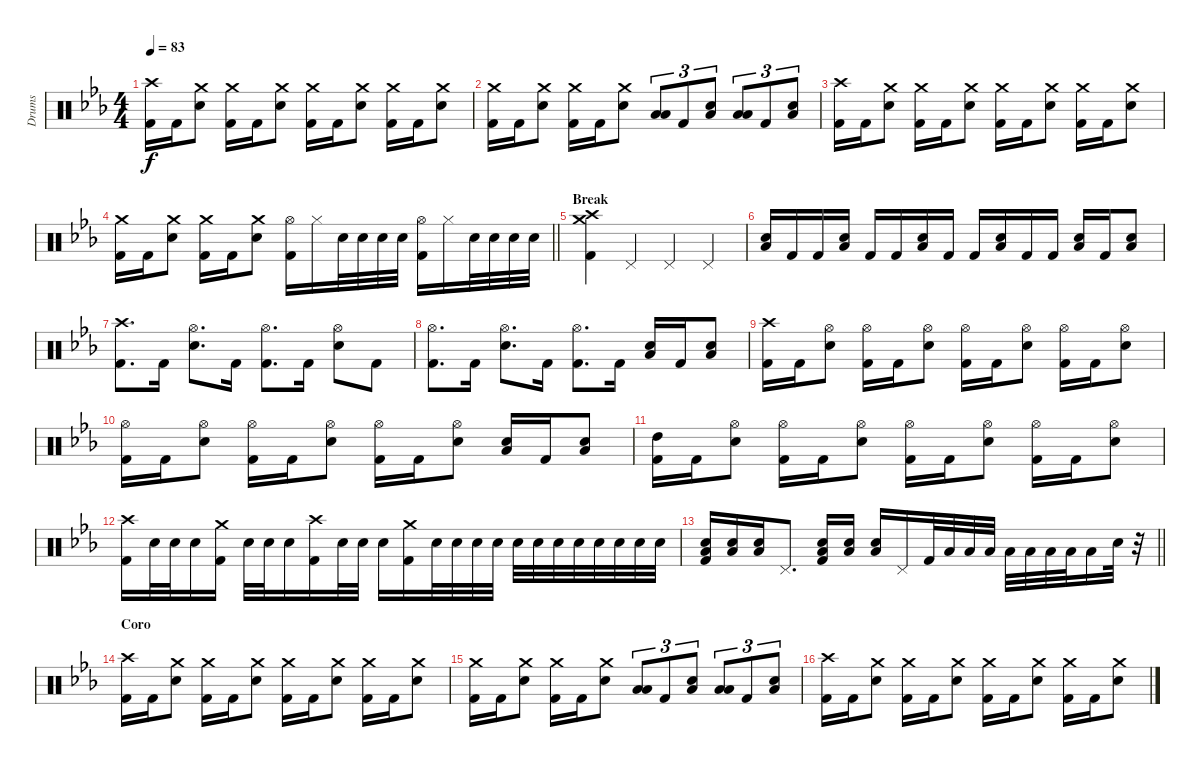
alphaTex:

\track ("Drums" "Drums") {instrument percussion}
\staff {score}
\articulation defaults
\ts (4 4)
\tempo 83
\clef neutral
\ks eb
("Crash high (hit)" "Kick (hit) 2").16{dy f} "Kick (hit) 2".16 ("Crash medium (hit)" "Snare (hit) 2").8 ("Crash medium (hit)" "Kick (hit) 2").16 "Kick (hit) 2".16 ("Crash medium (hit)" "Snare (hit) 2").8 ("Crash medium (hit)" "Kick (hit) 2").16 "Kick (hit) 2".16 ("Crash medium (hit)" "Snare (hit) 2").8 ("Crash medium (hit)" "Kick (hit) 2").16 "Kick (hit) 2".16 ("Crash medium (hit)" "Snare (hit) 2").8 |
("Crash medium (hit)" "Kick (hit) 2").16 "Kick (hit) 2".16 ("Crash medium (hit)" "Snare (hit) 2").8 ("Crash medium (hit)" "Kick (hit) 2").16 "Kick (hit) 2".16 ("Crash medium (hit)" "Snare (hit) 2").8 ("Low Tom (hit)" "Low Floor Tom (hit)").8{tu (3 2)} "Kick (hit) 2".8{tu (3 2)} ("Low Floor Tom (hit)" "Snare (hit) 2").8{tu (3 2)} ("Low Tom (hit)" "Low Floor Tom (hit)").8{tu (3 2)} "Kick (hit) 2".8{tu (3 2)} ("Low Floor Tom (hit)" "Snare (hit) 2").8{tu (3 2)} |
("Crash high (hit)" "Kick (hit) 2").16 "Kick (hit) 2".16 ("Crash medium (hit)" "Snare (hit) 2").8 ("Crash medium (hit)" "Kick (hit) 2").16 "Kick (hit) 2".16 ("Crash medium (hit)" "Snare (hit) 2").8 ("Crash medium (hit)" "Kick (hit) 2").16 "Kick (hit) 2".16 ("Crash medium (hit)" "Snare (hit) 2").8 ("Crash medium (hit)" "Kick (hit) 2").16 "Kick (hit) 2".16 ("Crash medium (hit)" "Snare (hit) 2").8 |
\barLineRight lightlight
("Crash medium (hit)" "Kick (hit) 2").16 "Kick (hit) 2".16 ("Crash medium (hit)" "Snare (hit) 2").8 ("Crash medium (hit)" "Kick (hit) 2").16 "Kick (hit) 2".16 ("Crash medium (hit)" "Snare (hit) 2").8 ("Hi-Hat (open)" "Kick (hit) 2").16 "Hi-Hat (closed)".16 "Snare (hit) 2".32 "Snare (hit) 2".32 "Snare (hit) 2".32 "Snare (hit) 2".32 ("Hi-Hat (open)" "Kick (hit) 2").16 "Hi-Hat (closed)".16 "Snare (hit) 2".32 "Snare (hit) 2".32 "Snare (hit) 2".32 "Snare (hit) 2".32 |
\section ("" "Break")
("Crash medium (hit)" "Crash high (hit)" "Kick (hit) 2").4 "Pedal Hi-Hat (hit)".4 "Pedal Hi-Hat (hit)".4 "Pedal Hi-Hat (hit)".4 |
("Low Floor Tom (hit)" "Snare (hit) 2").16 "Kick (hit) 2".16 "Kick (hit) 2".16 ("Low Floor Tom (hit)" "Snare (hit) 2").16 "Kick (hit) 2".16 "Kick (hit) 2".16 ("Low Floor Tom (hit)" "Snare (hit) 2").16 "Kick (hit) 2".16 "Kick (hit) 2".16 ("Low Floor Tom (hit)" "Snare (hit) 2").16 "Kick (hit) 2".16 "Kick (hit) 2".16 ("Low Floor Tom (hit)" "Snare (hit) 2").16 "Kick (hit) 2".16 ("Low Floor Tom (hit)" "Snare (hit) 2").8 |
("Crash high (hit)" "Kick (hit) 2").8{d} "Kick (hit) 2".16 ("Hi-Hat (open)" "Snare (hit) 2").8{d} "Kick (hit) 2".16 ("Hi-Hat (open)" "Kick (hit) 2").8{d} "Kick (hit) 2".16 ("Hi-Hat (open)" "Snare (hit) 2").8 "Kick (hit) 2".8 |
("Hi-Hat (open)" "Kick (hit) 2").8{d} "Kick (hit) 2".16 ("Hi-Hat (open)" "Snare (hit) 2").8{d} "Kick (hit) 2".16 ("Hi-Hat (open)" "Kick (hit) 2").8{d} "Kick (hit) 2".16 ("Low Floor Tom (hit)" "Snare (hit) 2").16 "Kick (hit) 2".16 ("Low Floor Tom (hit)" "Snare (hit) 2").8 |
("Crash high (hit)" "Kick (hit) 2").16 "Kick (hit) 2".16 ("Hi-Hat (open)" "Snare (hit) 2").8 ("Hi-Hat (open)" "Kick (hit) 2").16 "Kick (hit) 2".16 ("Hi-Hat (open)" "Snare (hit) 2").8 ("Hi-Hat (open)" "Kick (hit) 2").16 "Kick (hit) 2".16 ("Hi-Hat (open)" "Snare (hit) 2").8 ("Hi-Hat (open)" "Kick (hit) 2").16 "Kick (hit) 2".16 ("Hi-Hat (open)" "Snare (hit) 2").8 |
("Hi-Hat (open)" "Kick (hit) 2").16 "Kick (hit) 2".16 ("Hi-Hat (open)" "Snare (hit) 2").8 ("Hi-Hat (open)" "Kick (hit) 2").16 "Kick (hit) 2".16 ("Hi-Hat (open)" "Snare (hit) 2").8 ("Hi-Hat (open)" "Kick (hit) 2").16 "Kick (hit) 2".16 ("Hi-Hat (open)" "Snare (hit) 2").8 ("Low Floor Tom (hit)" "Snare (hit) 2").16 "Kick (hit) 2".16 ("Low Floor Tom (hit)" "Snare (hit) 2").8 |
("High Tom (hit)" "Kick (hit) 2").16 "Kick (hit) 2".16 ("Hi-Hat (open)" "Snare (hit) 2").8 ("Hi-Hat (open)" "Kick (hit) 2").16 "Kick (hit) 2".16 ("Hi-Hat (open)" "Snare (hit) 2").8 ("Hi-Hat (open)" "Kick (hit) 2").16 "Kick (hit) 2".16 ("Hi-Hat (open)" "Snare (hit) 2").8 ("Hi-Hat (open)" "Kick (hit) 2").16 "Kick (hit) 2".16 ("Hi-Hat (open)" "Snare (hit) 2").8 |
("Crash high (hit)" "Kick (hit) 2").16 "Snare (hit) 2".32 "Snare (hit) 2".32 "Snare (hit) 2".16 ("Crash medium (hit)" "Kick (hit) 2").16 "Snare (hit) 2".32 "Snare (hit) 2".32 "Snare (hit) 2".16 ("Crash high (hit)" "Kick (hit) 2").16 "Snare (hit) 2".32 "Snare (hit) 2".32 "Snare (hit) 2".16 ("Crash medium (hit)" "Kick (hit) 2").16 "Snare (hit) 2".32 "Snare (hit) 2".32 "Snare (hit) 2".32 "Snare (hit) 2".32 "Snare (hit) 2".32 "Snare (hit) 2".32 "Snare (hit) 2".32 "Snare (hit) 2".32 "Snare (hit) 2".32 "Snare (hit) 2".32 "Snare (hit) 2".32 "Snare (hit) 2".32 |
\barLineRight lightlight
("Low Floor Tom (hit)" "Snare (hit) 2" "Kick (hit) 2").16 ("Low Floor Tom (hit)" "Snare (hit) 2").16 ("Low Floor Tom (hit)" "Snare (hit) 2").16 "Pedal Hi-Hat (hit)".8{d} ("Low Floor Tom (hit)" "Snare (hit) 2" "Kick (hit) 2").16 ("Low Floor Tom (hit)" "Snare (hit) 2").16 ("Low Floor Tom (hit)" "Snare (hit) 2").16 "Pedal Hi-Hat (hit)".16 "Kick (hit) 2".32 "Low Tom (hit)".32 "Low Tom (hit)".32 "Low Tom (hit)".32 "Low Tom (hit)".32 "Low Floor Tom (hit)".32 "Low Floor Tom (hit)".32 "Low Floor Tom (hit)".32 "Low Floor Tom (hit)".16 "Snare (hit) 2".32 r.32 |
\section ("" "Coro")
("Crash high (hit)" "Kick (hit) 2").16 "Kick (hit) 2".16 ("Crash medium (hit)" "Snare (hit) 2").8 ("Crash medium (hit)" "Kick (hit) 2").16 "Kick (hit) 2".16 ("Crash medium (hit)" "Snare (hit) 2").8 ("Crash medium (hit)" "Kick (hit) 2").16 "Kick (hit) 2".16 ("Crash medium (hit)" "Snare (hit) 2").8 ("Crash medium (hit)" "Kick (hit) 2").16 "Kick (hit) 2".16 ("Crash medium (hit)" "Snare (hit) 2").8 |
("Crash medium (hit)" "Kick (hit) 2").16 "Kick (hit) 2".16 ("Crash medium (hit)" "Snare (hit) 2").8 ("Crash medium (hit)" "Kick (hit) 2").16 "Kick (hit) 2".16 ("Crash medium (hit)" "Snare (hit) 2").8 ("Low Tom (hit)" "Low Floor Tom (hit)").8{tu (3 2)} "Kick (hit) 2".8{tu (3 2)} ("Low Floor Tom (hit)" "Snare (hit) 2").8{tu (3 2)} ("Low Tom (hit)" "Low Floor Tom (hit)").8{tu (3 2)} "Kick (hit) 2".8{tu (3 2)} ("Low Floor Tom (hit)" "Snare (hit) 2").8{tu (3 2)} |
("Crash high (hit)" "Kick (hit) 2").16 "Kick (hit) 2".16 ("Crash medium (hit)" "Snare (hit) 2").8 ("Crash medium (hit)" "Kick (hit) 2").16 "Kick (hit) 2".16 ("Crash medium (hit)" "Snare (hit) 2").8 ("Crash medium (hit)" "Kick (hit) 2").16 "Kick (hit) 2".16 ("Crash medium (hit)" "Snare (hit) 2").8 ("Crash medium (hit)" "Kick (hit) 2").16 "Kick (hit) 2".16 ("Crash medium (hit)" "Snare (hit) 2").8
